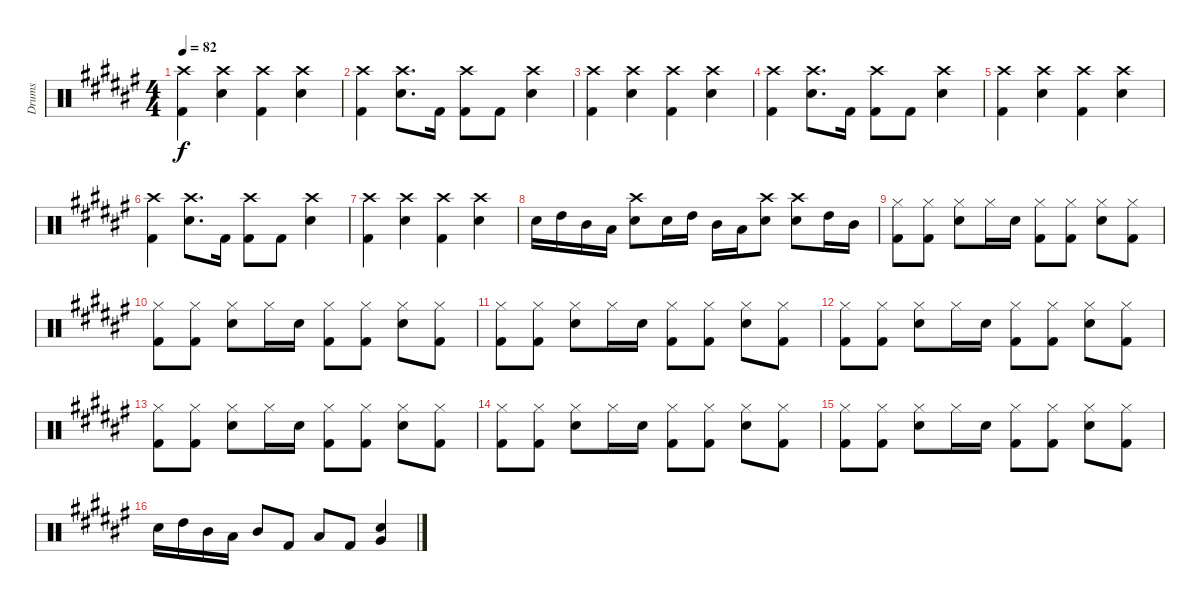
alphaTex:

\track ("Drums" "Drums") {instrument percussion}
\staff {score}
\articulation defaults
\ts (4 4)
\tempo 82
\clef neutral
\ks f#
("Crash high (hit)" "Kick (hit) 2").4{dy f} ("Crash high (hit)" "Electric Snare (hit)").4 ("Crash high (hit)" "Kick (hit) 2").4 ("Crash high (hit)" "Electric Snare (hit)").4 |
("Crash high (hit)" "Kick (hit) 2").4 ("Crash high (hit)" "Electric Snare (hit)").8{d} "Kick (hit) 2".16 ("Crash high (hit)" "Kick (hit) 2").8 "Kick (hit) 2".8 ("Crash high (hit)" "Electric Snare (hit)").4 |
("Crash high (hit)" "Kick (hit) 2").4 ("Crash high (hit)" "Electric Snare (hit)").4 ("Crash high (hit)" "Kick (hit) 2").4 ("Crash high (hit)" "Electric Snare (hit)").4 |
("Crash high (hit)" "Kick (hit) 2").4 ("Crash high (hit)" "Electric Snare (hit)").8{d} "Kick (hit) 2".16 ("Crash high (hit)" "Kick (hit) 2").8 "Kick (hit) 2".8 ("Crash high (hit)" "Electric Snare (hit)").4 |
("Crash high (hit)" "Kick (hit) 2").4 ("Crash high (hit)" "Electric Snare (hit)").4 ("Crash high (hit)" "Kick (hit) 2").4 ("Crash high (hit)" "Electric Snare (hit)").4 |
("Crash high (hit)" "Kick (hit) 2").4 ("Crash high (hit)" "Electric Snare (hit)").8{d} "Kick (hit) 2".16 ("Crash high (hit)" "Kick (hit) 2").8 "Kick (hit) 2".8 ("Crash high (hit)" "Electric Snare (hit)").4 |
("Crash high (hit)" "Kick (hit) 2").4 ("Crash high (hit)" "Electric Snare (hit)").4 ("Crash high (hit)" "Kick (hit) 2").4 ("Crash high (hit)" "Electric Snare (hit)").4 |
"Electric Snare (hit)".16 "High Tom (hit)".16 "Mid Tom (hit)".16 "Low Tom (hit)".16 ("Crash high (hit)" "Electric Snare (hit)").8 "Electric Snare (hit)".16 "High Tom (hit)".16 "Mid Tom (hit)".16 "Low Tom (hit)".16 ("Crash high (hit)" "Electric Snare (hit)").8 ("Crash high (hit)" "Electric Snare (hit)").8 "High Tom (hit)".16 "Mid Tom (hit)".16 |
("Hi-Hat (closed)" "Kick (hit) 2").8 ("Hi-Hat (closed)" "Kick (hit) 2").8 ("Hi-Hat (closed)" "Electric Snare (hit)").8 "Hi-Hat (closed)".16 "Electric Snare (hit)".16 ("Hi-Hat (closed)" "Kick (hit) 2").8 ("Hi-Hat (closed)" "Kick (hit) 2").8 ("Hi-Hat (closed)" "Electric Snare (hit)").8 ("Hi-Hat (closed)" "Kick (hit) 2").8 |
("Hi-Hat (closed)" "Kick (hit) 2").8 ("Hi-Hat (closed)" "Kick (hit) 2").8 ("Hi-Hat (closed)" "Electric Snare (hit)").8 "Hi-Hat (closed)".16 "Electric Snare (hit)".16 ("Hi-Hat (closed)" "Kick (hit) 2").8 ("Hi-Hat (closed)" "Kick (hit) 2").8 ("Hi-Hat (closed)" "Electric Snare (hit)").8 ("Hi-Hat (closed)" "Kick (hit) 2").8 |
("Hi-Hat (closed)" "Kick (hit) 2").8 ("Hi-Hat (closed)" "Kick (hit) 2").8 ("Hi-Hat (closed)" "Electric Snare (hit)").8 "Hi-Hat (closed)".16 "Electric Snare (hit)".16 ("Hi-Hat (closed)" "Kick (hit) 2").8 ("Hi-Hat (closed)" "Kick (hit) 2").8 ("Hi-Hat (closed)" "Electric Snare (hit)").8 ("Hi-Hat (closed)" "Kick (hit) 2").8 |
("Hi-Hat (closed)" "Kick (hit) 2").8 ("Hi-Hat (closed)" "Kick (hit) 2").8 ("Hi-Hat (closed)" "Electric Snare (hit)").8 "Hi-Hat (closed)".16 "Electric Snare (hit)".16 ("Hi-Hat (closed)" "Kick (hit) 2").8 ("Hi-Hat (closed)" "Kick (hit) 2").8 ("Hi-Hat (closed)" "Electric Snare (hit)").8 ("Hi-Hat (closed)" "Kick (hit) 2").8 |
("Hi-Hat (closed)" "Kick (hit) 2").8 ("Hi-Hat (closed)" "Kick (hit) 2").8 ("Hi-Hat (closed)" "Electric Snare (hit)").8 "Hi-Hat (closed)".16 "Electric Snare (hit)".16 ("Hi-Hat (closed)" "Kick (hit) 2").8 ("Hi-Hat (closed)" "Kick (hit) 2").8 ("Hi-Hat (closed)" "Electric Snare (hit)").8 ("Hi-Hat (closed)" "Kick (hit) 2").8 |
("Hi-Hat (closed)" "Kick (hit) 2").8 ("Hi-Hat (closed)" "Kick (hit) 2").8 ("Hi-Hat (closed)" "Electric Snare (hit)").8 "Hi-Hat (closed)".16 "Electric Snare (hit)".16 ("Hi-Hat (closed)" "Kick (hit) 2").8 ("Hi-Hat (closed)" "Kick (hit) 2").8 ("Hi-Hat (closed)" "Electric Snare (hit)").8 ("Hi-Hat (closed)" "Kick (hit) 2").8 |
("Hi-Hat (closed)" "Kick (hit) 2").8 ("Hi-Hat (closed)" "Kick (hit) 2").8 ("Hi-Hat (closed)" "Electric Snare (hit)").8 "Hi-Hat (closed)".16 "Electric Snare (hit)".16 ("Hi-Hat (closed)" "Kick (hit) 2").8 ("Hi-Hat (closed)" "Kick (hit) 2").8 ("Hi-Hat (closed)" "Electric Snare (hit)").8 ("Hi-Hat (closed)" "Kick (hit) 2").8 |
"Electric Snare (hit)".16 "High Tom (hit)".16 "Mid Tom (hit)".16 "Low Tom (hit)".16 "Mid Tom (hit)".8 "Kick (hit) 2".8 "Low Tom (hit)".8 "Kick (hit) 2".8 ("Electric Snare (hit)" "Very Low Tom (hit)").4
